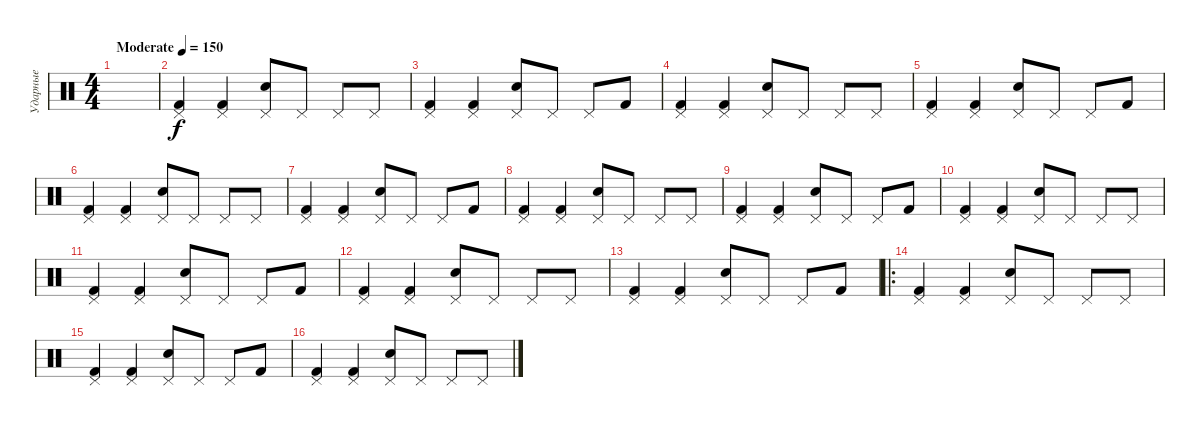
\track ("Ударные" "Ударные") {instrument percussion}
\staff {score}
\articulation defaults
\ts (4 4)
\tempo (150 "Moderate")
\clef neutral
\ks c
|
("Pedal Hi-Hat (hit)" "Kick (hit) 2").4 ("Pedal Hi-Hat (hit)" "Kick (hit) 2").4 ("Pedal Hi-Hat (hit)" "Snare (hit) 2").8 "Pedal Hi-Hat (hit)".8 "Pedal Hi-Hat (hit)".8 "Pedal Hi-Hat (hit)".8 |
("Pedal Hi-Hat (hit)" "Kick (hit) 2").4 ("Pedal Hi-Hat (hit)" "Kick (hit) 2").4 ("Pedal Hi-Hat (hit)" "Snare (hit) 2").8 "Pedal Hi-Hat (hit)".8 "Pedal Hi-Hat (hit)".8 "Kick (hit) 2".8 |
("Pedal Hi-Hat (hit)" "Kick (hit) 2").4 ("Pedal Hi-Hat (hit)" "Kick (hit) 2").4 ("Pedal Hi-Hat (hit)" "Snare (hit) 2").8 "Pedal Hi-Hat (hit)".8 "Pedal Hi-Hat (hit)".8 "Pedal Hi-Hat (hit)".8 |
("Pedal Hi-Hat (hit)" "Kick (hit) 2").4 ("Pedal Hi-Hat (hit)" "Kick (hit) 2").4 ("Pedal Hi-Hat (hit)" "Snare (hit) 2").8 "Pedal Hi-Hat (hit)".8 "Pedal Hi-Hat (hit)".8 "Kick (hit) 2".8 |
("Pedal Hi-Hat (hit)" "Kick (hit) 2").4 ("Pedal Hi-Hat (hit)" "Kick (hit) 2").4 ("Pedal Hi-Hat (hit)" "Snare (hit) 2").8 "Pedal Hi-Hat (hit)".8 "Pedal Hi-Hat (hit)".8 "Pedal Hi-Hat (hit)".8 |
("Pedal Hi-Hat (hit)" "Kick (hit) 2").4 ("Pedal Hi-Hat (hit)" "Kick (hit) 2").4 ("Pedal Hi-Hat (hit)" "Snare (hit) 2").8 "Pedal Hi-Hat (hit)".8 "Pedal Hi-Hat (hit)".8 "Kick (hit) 2".8 |
("Pedal Hi-Hat (hit)" "Kick (hit) 2").4 ("Pedal Hi-Hat (hit)" "Kick (hit) 2").4 ("Pedal Hi-Hat (hit)" "Snare (hit) 2").8 "Pedal Hi-Hat (hit)".8 "Pedal Hi-Hat (hit)".8 "Pedal Hi-Hat (hit)".8 |
("Pedal Hi-Hat (hit)" "Kick (hit) 2").4 ("Pedal Hi-Hat (hit)" "Kick (hit) 2").4 ("Pedal Hi-Hat (hit)" "Snare (hit) 2").8 "Pedal Hi-Hat (hit)".8 "Pedal Hi-Hat (hit)".8 "Kick (hit) 2".8 |
("Pedal Hi-Hat (hit)" "Kick (hit) 2").4 ("Pedal Hi-Hat (hit)" "Kick (hit) 2").4 ("Pedal Hi-Hat (hit)" "Snare (hit) 2").8 "Pedal Hi-Hat (hit)".8 "Pedal Hi-Hat (hit)".8 "Pedal Hi-Hat (hit)".8 |
("Pedal Hi-Hat (hit)" "Kick (hit) 2").4 ("Pedal Hi-Hat (hit)" "Kick (hit) 2").4 ("Pedal Hi-Hat (hit)" "Snare (hit) 2").8 "Pedal Hi-Hat (hit)".8 "Pedal Hi-Hat (hit)".8 "Kick (hit) 2".8 |
("Pedal Hi-Hat (hit)" "Kick (hit) 2").4 ("Pedal Hi-Hat (hit)" "Kick (hit) 2").4 ("Pedal Hi-Hat (hit)" "Snare (hit) 2").8 "Pedal Hi-Hat (hit)".8 "Pedal Hi-Hat (hit)".8 "Pedal Hi-Hat (hit)".8 |
("Pedal Hi-Hat (hit)" "Kick (hit) 2").4 ("Pedal Hi-Hat (hit)" "Kick (hit) 2").4 ("Pedal Hi-Hat (hit)" "Snare (hit) 2").8 "Pedal Hi-Hat (hit)".8 "Pedal Hi-Hat (hit)".8 "Kick (hit) 2".8 |
\ro
("Pedal Hi-Hat (hit)" "Kick (hit) 2").4 ("Pedal Hi-Hat (hit)" "Kick (hit) 2").4 ("Pedal Hi-Hat (hit)" "Snare (hit) 2").8 "Pedal Hi-Hat (hit)".8 "Pedal Hi-Hat (hit)".8 "Pedal Hi-Hat (hit)".8 |
("Pedal Hi-Hat (hit)" "Kick (hit) 2").4 ("Pedal Hi-Hat (hit)" "Kick (hit) 2").4 ("Pedal Hi-Hat (hit)" "Snare (hit) 2").8 "Pedal Hi-Hat (hit)".8 "Pedal Hi-Hat (hit)".8 "Kick (hit) 2".8 |
("Pedal Hi-Hat (hit)" "Kick (hit) 2").4 ("Pedal Hi-Hat (hit)" "Kick (hit) 2").4 ("Pedal Hi-Hat (hit)" "Snare (hit) 2").8 "Pedal Hi-Hat (hit)".8 "Pedal Hi-Hat (hit)".8 "Pedal Hi-Hat (hit)".8
